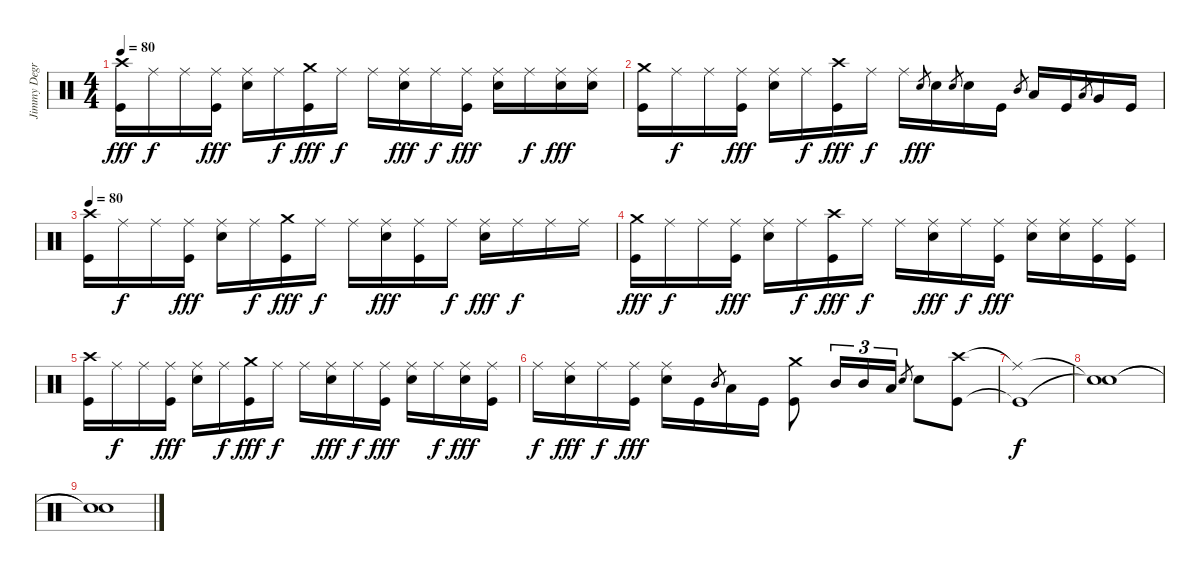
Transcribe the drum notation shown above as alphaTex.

\track ("Jimmy Degrasso" "Jimmy Degr") {instrument percussion}
\staff {score}
\articulation defaults
\ts (4 4)
\tempo 80
\clef neutral
\ks c
("Kick (hit)" "Crash high (hit)").16{dy fff} "Ride (middle)".16{dy f} "Ride (middle)".16 ("Kick (hit)" "Ride (middle)").16{dy fff} ("Electric Snare (hit)" "Ride (middle)").16 "Ride (middle)".16{dy f} ("Kick (hit)" "Crash medium (hit)").16{dy fff} "Ride (middle)".16{dy f} "Ride (middle)".16 ("Electric Snare (hit)" "Ride (middle)").16{dy fff} "Ride (middle)".16{dy f} ("Kick (hit)" "Ride (middle)").16{dy fff} ("Electric Snare (hit)" "Ride (middle)").16 "Ride (middle)".16{dy f} ("Electric Snare (hit)" "Ride (middle)").16{dy fff} ("Electric Snare (hit)" "Ride (middle)").16 |
("Kick (hit)" "Crash medium (hit)").16 "Ride (middle)".16{dy f} "Ride (middle)".16 ("Kick (hit)" "Ride (middle)").16{dy fff} ("Electric Snare (hit)" "Ride (middle)").16 "Ride (middle)".16{dy f} ("Kick (hit)" "Crash high (hit)").16{dy fff} "Ride (middle)".16{dy f} "Ride (middle)".16 "Electric Snare (hit)".8{gr dy fff} "Electric Snare (hit)".16 "Electric Snare (hit)".8{gr} "Electric Snare (hit)".16 "Kick (hit)".16 "Mid Tom (hit)".8{gr} "Low Tom (hit)".16 "Kick (hit)".16 "Low Tom (hit)".8{gr} "Very Low Tom (hit)".16 "Kick (hit)".16 |
\tempo 80
("Kick (hit)" "Crash high (hit)").16 "Ride (middle)".16{dy f} "Ride (middle)".16 ("Kick (hit)" "Ride (middle)").16{dy fff} ("Electric Snare (hit)" "Ride (middle)").16 "Ride (middle)".16{dy f} ("Kick (hit)" "Crash medium (hit)").16{dy fff} "Ride (middle)".16{dy f} "Ride (middle)".16 ("Electric Snare (hit)" "Ride (middle)").16{dy fff} ("Kick (hit)" "Ride (middle)").16 "Ride (middle)".16{dy f} ("Electric Snare (hit)" "Ride (middle)").16{dy fff} "Ride (middle)".16{dy f} "Ride (middle)".16 "Ride (middle)".16 |
("Kick (hit)" "Crash medium (hit)").16{dy fff} "Ride (middle)".16{dy f} "Ride (middle)".16 ("Kick (hit)" "Ride (middle)").16{dy fff} ("Electric Snare (hit)" "Ride (middle)").16 "Ride (middle)".16{dy f} ("Kick (hit)" "Crash high (hit)").16{dy fff} "Ride (middle)".16{dy f} "Ride (middle)".16 ("Electric Snare (hit)" "Ride (middle)").16{dy fff} "Ride (middle)".16{dy f} ("Kick (hit)" "Ride (middle)").16{dy fff} ("Electric Snare (hit)" "Ride (middle)").16 ("Electric Snare (hit)" "Ride (middle)").16 ("Kick (hit)" "Ride (middle)").16 ("Kick (hit)" "Ride (middle)").16 |
("Kick (hit)" "Crash high (hit)").16 "Ride (middle)".16{dy f} "Ride (middle)".16 ("Kick (hit)" "Ride (middle)").16{dy fff} ("Electric Snare (hit)" "Ride (middle)").16 "Ride (middle)".16{dy f} ("Kick (hit)" "Crash medium (hit)").16{dy fff} "Ride (middle)".16{dy f} "Ride (middle)".16 ("Electric Snare (hit)" "Ride (middle)").16{dy fff} "Ride (middle)".16{dy f} ("Kick (hit)" "Ride (middle)").16{dy fff} ("Electric Snare (hit)" "Ride (middle)").16 "Ride (middle)".16{dy f} ("Electric Snare (hit)" "Ride (middle)").16{dy fff} ("Kick (hit)" "Ride (middle)").16 |
"Ride (middle)".16{dy f} ("Electric Snare (hit)" "Ride (middle)").16{dy fff} "Ride (middle)".16{dy f} ("Kick (hit)" "Ride (middle)").16{dy fff} ("Electric Snare (hit)" "Ride (middle)").16 "Kick (hit)".16 "Mid Tom (hit)".8{gr} "Low Tom (hit)".16 "Kick (hit)".16 ("Kick (hit)" "Crash medium (hit)").8 "Mid Tom (hit)".16{tu (3 2)} "Mid Tom (hit)".16{tu (3 2)} "Low Tom (hit)".16{tu (3 2)} "Electric Snare (hit)".8{gr} "Electric Snare (hit)".8 ("Kick (hit)" "Crash high (hit)").8 |
("Kick (hit)"{t} "Ride (middle)"{t}).1{dy f} |
("Snare (hit)"{t} "Snare (hit)"{t}).1 |
("Snare (hit)"{t} "Snare (hit)"{t}).1
